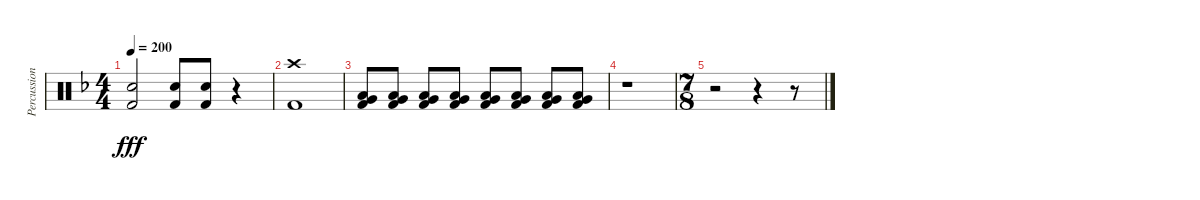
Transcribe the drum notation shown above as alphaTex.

\track ("Percussion" "Percussion") {instrument percussion}
\staff {score}
\articulation defaults
\ts (4 4)
\tempo 200
\clef neutral
\ks f
("Electric Snare (hit)" "Kick (hit) 2").2{dy fff} ("Electric Snare (hit)" "Kick (hit) 2").8 ("Electric Snare (hit)" "Kick (hit) 2").8 r.4 |
("Crash high (hit)" "Kick (hit) 2").1 |
("Low Tom (hit)" "Very Low Tom (hit)" "Kick (hit) 2").8 ("Low Tom (hit)" "Very Low Tom (hit)" "Kick (hit) 2").8 ("Low Tom (hit)" "Very Low Tom (hit)" "Kick (hit) 2").8 ("Low Tom (hit)" "Very Low Tom (hit)" "Kick (hit) 2").8 ("Low Tom (hit)" "Very Low Tom (hit)" "Kick (hit) 2").8 ("Low Tom (hit)" "Very Low Tom (hit)" "Kick (hit) 2").8 ("Low Tom (hit)" "Very Low Tom (hit)" "Kick (hit) 2").8 ("Low Tom (hit)" "Very Low Tom (hit)" "Kick (hit) 2").8 |
r.1 |
\ts (7 8)
r.2 r.4 r.8
